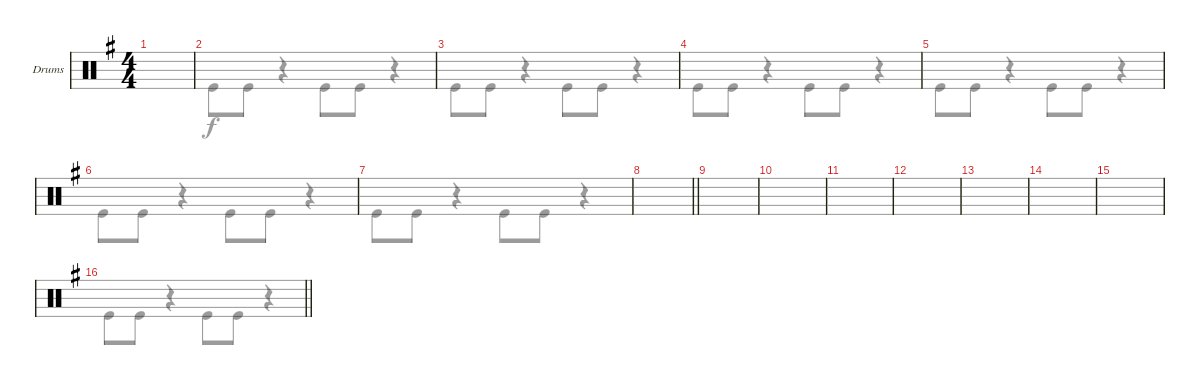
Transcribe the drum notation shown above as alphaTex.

\defaultSystemsLayout 4
\bracketExtendMode groupsimilarinstruments
\firstSystemTrackNameOrientation horizontal
\otherSystemsTrackNameOrientation horizontal
\track ("Drumkit" "Drums") {instrument percussion}
\staff {score}
\articulation defaults
\voice
\ts (4 4)
\tempo (80 hide)
\clef neutral
\ks g
|
|
|
|
|
|
|
\tempo (60 0.75 hide)
\barLineRight lightlight
|
|
|
|
|
|
|
|
\barLineRight lightlight
\voice
\clef neutral
\ks g "Kick (hit)".8{dy f} "Kick (hit)".8
r.4 "Kick (hit)".8 "Kick (hit)".8 r.4 |
"Kick (hit)".8 "Kick (hit)".8 r.4 "Kick (hit)".8 "Kick (hit)".8 r.4 |
"Kick (hit)".8 "Kick (hit)".8 r.4 "Kick (hit)".8 "Kick (hit)".8 r.4 |
"Kick (hit)".8 "Kick (hit)".8 r.4 "Kick (hit)".8 "Kick (hit)".8 r.4 |
"Kick (hit)".8 "Kick (hit)".8 r.4 "Kick (hit)".8 "Kick (hit)".8 r.4 |
"Kick (hit)".8 "Kick (hit)".8 r.4 "Kick (hit)".8 "Kick (hit)".8 r.4 |
"Kick (hit)".8 "Kick (hit)".8 r.4 "Kick (hit)".8 "Kick (hit)".8 r.4 |
\barLineRight lightlight
|
|
|
|
|
|
|
|
\barLineRight lightlight
